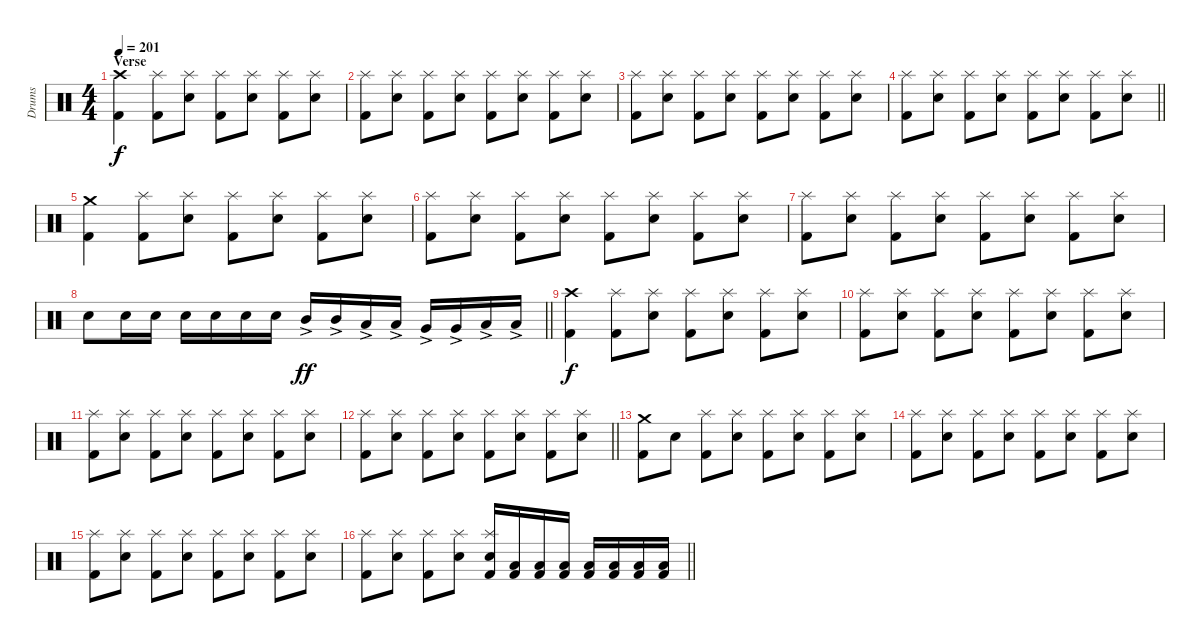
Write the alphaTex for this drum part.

\track ("Drums" "Drums") {instrument percussion}
\staff {score}
\articulation defaults
\ts (4 4)
\section ("" "Verse")
\tempo 201
\clef neutral
\ks c
("Kick (hit) 2" "Crash high (hit)").4{dy f} ("Kick (hit) 2" "Splash (hit)").8 ("Snare (hit) 2" "Splash (hit)").8 ("Kick (hit) 2" "Splash (hit)").8 ("Snare (hit) 2" "Splash (hit)").8 ("Kick (hit) 2" "Splash (hit)").8 ("Snare (hit) 2" "Splash (hit)").8 |
("Kick (hit) 2" "Splash (hit)").8 ("Snare (hit) 2" "Splash (hit)").8 ("Kick (hit) 2" "Splash (hit)").8 ("Snare (hit) 2" "Splash (hit)").8 ("Kick (hit) 2" "Splash (hit)").8 ("Snare (hit) 2" "Splash (hit)").8 ("Kick (hit) 2" "Splash (hit)").8 ("Snare (hit) 2" "Splash (hit)").8 |
("Kick (hit) 2" "Splash (hit)").8 ("Snare (hit) 2" "Splash (hit)").8 ("Kick (hit) 2" "Splash (hit)").8 ("Snare (hit) 2" "Splash (hit)").8 ("Kick (hit) 2" "Splash (hit)").8 ("Snare (hit) 2" "Splash (hit)").8 ("Kick (hit) 2" "Splash (hit)").8 ("Snare (hit) 2" "Splash (hit)").8 |
\barLineRight lightlight
("Kick (hit) 2" "Splash (hit)").8 ("Snare (hit) 2" "Splash (hit)").8 ("Kick (hit) 2" "Splash (hit)").8 ("Snare (hit) 2" "Splash (hit)").8 ("Kick (hit) 2" "Splash (hit)").8 ("Snare (hit) 2" "Splash (hit)").8 ("Kick (hit) 2" "Splash (hit)").8 ("Snare (hit) 2" "Splash (hit)").8 |
\section ("" "")
("Kick (hit) 2" "Crash medium (hit)").4 ("Kick (hit) 2" "Splash (hit)").8 ("Snare (hit) 2" "Splash (hit)").8 ("Kick (hit) 2" "Splash (hit)").8 ("Snare (hit) 2" "Splash (hit)").8 ("Kick (hit) 2" "Splash (hit)").8 ("Snare (hit) 2" "Splash (hit)").8 |
("Kick (hit) 2" "Splash (hit)").8 ("Snare (hit) 2" "Splash (hit)").8 ("Kick (hit) 2" "Splash (hit)").8 ("Snare (hit) 2" "Splash (hit)").8 ("Kick (hit) 2" "Splash (hit)").8 ("Snare (hit) 2" "Splash (hit)").8 ("Kick (hit) 2" "Splash (hit)").8 ("Snare (hit) 2" "Splash (hit)").8 |
("Kick (hit) 2" "Splash (hit)").8 ("Snare (hit) 2" "Splash (hit)").8 ("Kick (hit) 2" "Splash (hit)").8 ("Snare (hit) 2" "Splash (hit)").8 ("Kick (hit) 2" "Splash (hit)").8 ("Snare (hit) 2" "Splash (hit)").8 ("Kick (hit) 2" "Splash (hit)").8 ("Snare (hit) 2" "Splash (hit)").8 |
\barLineRight lightlight "Snare (hit) 2".8 "Snare (hit) 2".16 "Snare (hit) 2".16 "Snare (hit) 2".16 "Snare (hit) 2".16 "Snare (hit) 2".16 "Snare (hit) 2".16 "Mid Tom (hit)"{ac}.16{dy ff} "Mid Tom (hit)"{ac}.16 "Low Tom (hit)"{ac}.16 "Low Tom (hit)"{ac}.16 "Very Low Tom (hit)"{ac}.16 "Very Low Tom (hit)"{ac}.16 "Low Floor Tom (hit)"{ac}.16 "Low Floor Tom (hit)"{ac}.16
|
\section ("" "")
("Kick (hit) 2" "Crash high (hit)").4{dy f} ("Kick (hit) 2" "Splash (hit)").8 ("Snare (hit) 2" "Splash (hit)").8 ("Kick (hit) 2" "Splash (hit)").8 ("Snare (hit) 2" "Splash (hit)").8 ("Kick (hit) 2" "Splash (hit)").8 ("Snare (hit) 2" "Splash (hit)").8 |
("Kick (hit) 2" "Splash (hit)").8 ("Snare (hit) 2" "Splash (hit)").8 ("Kick (hit) 2" "Splash (hit)").8 ("Snare (hit) 2" "Splash (hit)").8 ("Kick (hit) 2" "Splash (hit)").8 ("Snare (hit) 2" "Splash (hit)").8 ("Kick (hit) 2" "Splash (hit)").8 ("Snare (hit) 2" "Splash (hit)").8 |
("Kick (hit) 2" "Splash (hit)").8 ("Snare (hit) 2" "Splash (hit)").8 ("Kick (hit) 2" "Splash (hit)").8 ("Snare (hit) 2" "Splash (hit)").8 ("Kick (hit) 2" "Splash (hit)").8 ("Snare (hit) 2" "Splash (hit)").8 ("Kick (hit) 2" "Splash (hit)").8 ("Snare (hit) 2" "Splash (hit)").8 |
\barLineRight lightlight
("Kick (hit) 2" "Splash (hit)").8 ("Snare (hit) 2" "Splash (hit)").8 ("Kick (hit) 2" "Splash (hit)").8 ("Snare (hit) 2" "Splash (hit)").8 ("Kick (hit) 2" "Splash (hit)").8 ("Snare (hit) 2" "Splash (hit)").8 ("Kick (hit) 2" "Splash (hit)").8 ("Snare (hit) 2" "Splash (hit)").8 |
\section ("" "")
("Kick (hit) 2" "Crash medium (hit)").8 "Snare (hit) 2".8 ("Kick (hit) 2" "Splash (hit)").8 ("Snare (hit) 2" "Splash (hit)").8 ("Kick (hit) 2" "Splash (hit)").8 ("Snare (hit) 2" "Splash (hit)").8 ("Kick (hit) 2" "Splash (hit)").8 ("Snare (hit) 2" "Splash (hit)").8 |
("Kick (hit) 2" "Splash (hit)").8 ("Snare (hit) 2" "Splash (hit)").8 ("Kick (hit) 2" "Splash (hit)").8 ("Snare (hit) 2" "Splash (hit)").8 ("Kick (hit) 2" "Splash (hit)").8 ("Snare (hit) 2" "Splash (hit)").8 ("Kick (hit) 2" "Splash (hit)").8 ("Snare (hit) 2" "Splash (hit)").8 |
("Kick (hit) 2" "Splash (hit)").8 ("Snare (hit) 2" "Splash (hit)").8 ("Kick (hit) 2" "Splash (hit)").8 ("Snare (hit) 2" "Splash (hit)").8 ("Kick (hit) 2" "Splash (hit)").8 ("Snare (hit) 2" "Splash (hit)").8 ("Kick (hit) 2" "Splash (hit)").8 ("Snare (hit) 2" "Splash (hit)").8 |
\barLineRight lightlight
("Kick (hit) 2" "Splash (hit)").8 ("Snare (hit) 2" "Splash (hit)").8 ("Kick (hit) 2" "Splash (hit)").8 ("Snare (hit) 2" "Splash (hit)").8 ("Kick (hit) 2" "Snare (hit) 2" "Splash (hit)").16 ("Kick (hit) 2" "Low Floor Tom (hit)").16 ("Kick (hit) 2" "Low Floor Tom (hit)").16 ("Kick (hit) 2" "Low Floor Tom (hit)").16 ("Kick (hit) 2" "Low Floor Tom (hit)").16 ("Kick (hit) 2" "Low Floor Tom (hit)").16 ("Kick (hit) 2" "Low Floor Tom (hit)").16 ("Kick (hit) 2" "Low Floor Tom (hit)").16
